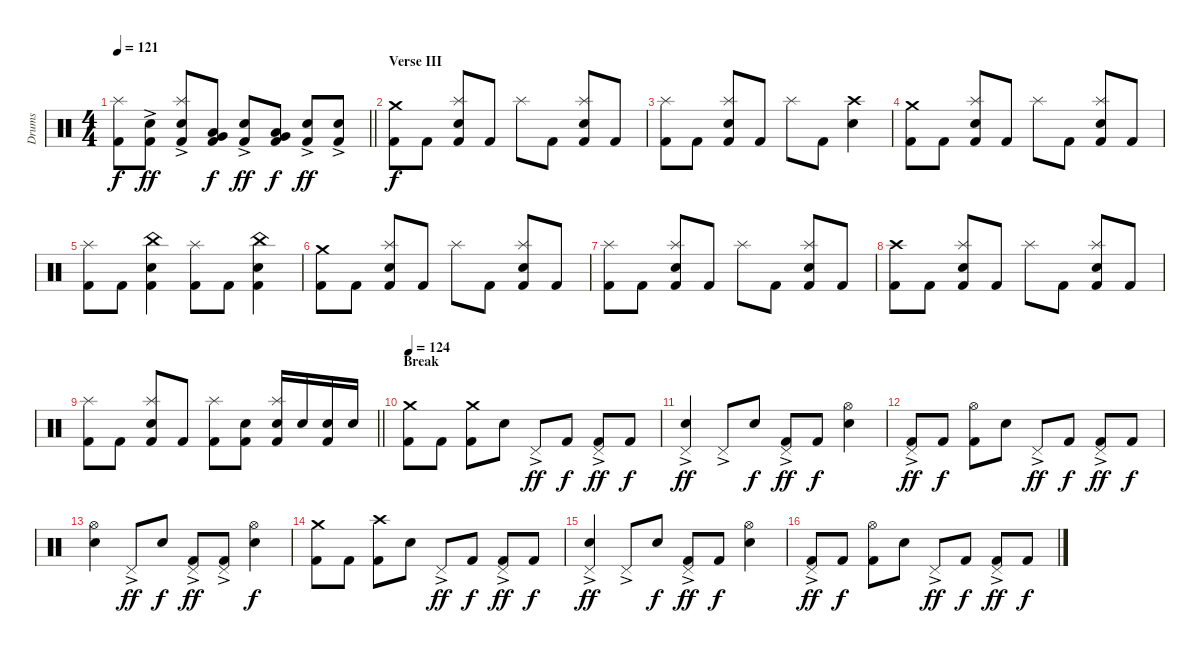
\track ("Drums" "Drums") {instrument percussion}
\staff {score}
\articulation defaults
\ts (4 4)
\tempo 121
\clef neutral
\barLineRight lightlight
\ks c
("Kick (hit) 2" "Splash (hit)").8{dy f} ("Kick (hit) 2" "Snare (hit) 2"{ac}).8{dy ff} ("Kick (hit) 2" "Snare (hit) 2"{ac} "Splash (hit)").8 ("Kick (hit) 2" "Low Tom (hit)" "Very Low Tom (hit)").8{dy f} ("Kick (hit) 2" "Snare (hit) 2"{ac}).8{dy ff} ("Kick (hit) 2" "Very Low Tom (hit)" "Low Floor Tom (hit)").8{dy f} ("Kick (hit) 2" "Snare (hit) 2"{ac}).8{dy ff} ("Kick (hit) 2" "Snare (hit) 2"{ac}).8 |
\section ("" "Verse III")
("Kick (hit) 2" "Crash medium (hit)").8{dy f} "Kick (hit) 2".8 ("Kick (hit) 2" "Snare (hit) 2" "Splash (hit)").8 "Kick (hit) 2".8 "Splash (hit)".8 "Kick (hit) 2".8 ("Kick (hit) 2" "Snare (hit) 2" "Splash (hit)").8 "Kick (hit) 2".8 |
("Kick (hit) 2" "Splash (hit)").8 "Kick (hit) 2".8 ("Kick (hit) 2" "Snare (hit) 2" "Splash (hit)").8 "Kick (hit) 2".8 "Splash (hit)".8 "Kick (hit) 2".8 ("Snare (hit) 2" "Crash high (hit)").4 |
("Kick (hit) 2" "Crash medium (hit)").8 "Kick (hit) 2".8 ("Kick (hit) 2" "Snare (hit) 2" "Splash (hit)").8 "Kick (hit) 2".8 "Splash (hit)".8 "Kick (hit) 2".8 ("Kick (hit) 2" "Snare (hit) 2" "Splash (hit)").8 "Kick (hit) 2".8 |
("Kick (hit) 2" "Splash (hit)").8 "Kick (hit) 2".8 ("Kick (hit) 2" "Snare (hit) 2" "China (hit)").4 ("Kick (hit) 2" "Splash (hit)").8 "Kick (hit) 2".8 ("Kick (hit) 2" "Snare (hit) 2" "China (hit)").4 |
("Kick (hit) 2" "Crash medium (hit)").8 "Kick (hit) 2".8 ("Kick (hit) 2" "Snare (hit) 2" "Splash (hit)").8 "Kick (hit) 2".8 "Splash (hit)".8 "Kick (hit) 2".8 ("Kick (hit) 2" "Snare (hit) 2" "Splash (hit)").8 "Kick (hit) 2".8 |
("Kick (hit) 2" "Splash (hit)").8 "Kick (hit) 2".8 ("Kick (hit) 2" "Snare (hit) 2" "Splash (hit)").8 "Kick (hit) 2".8 "Splash (hit)".8 "Kick (hit) 2".8 ("Kick (hit) 2" "Snare (hit) 2" "Splash (hit)").8 "Kick (hit) 2".8 |
("Kick (hit) 2" "Crash high (hit)").8 "Kick (hit) 2".8 ("Kick (hit) 2" "Snare (hit) 2" "Splash (hit)").8 "Kick (hit) 2".8 "Splash (hit)".8 "Kick (hit) 2".8 ("Kick (hit) 2" "Snare (hit) 2" "Splash (hit)").8 "Kick (hit) 2".8 |
\barLineRight lightlight
("Kick (hit) 2" "Splash (hit)").8 "Kick (hit) 2".8 ("Kick (hit) 2" "Snare (hit) 2" "Splash (hit)").8 "Kick (hit) 2".8 ("Kick (hit) 2" "Splash (hit)").8 ("Kick (hit) 2" "Snare (hit) 2").8 ("Kick (hit) 2" "Snare (hit) 2" "Splash (hit)").16 "Snare (hit) 2".16 ("Kick (hit) 2" "Snare (hit) 2").16 "Snare (hit) 2".16 |
\section ("" "Break")
\tempo 124
("Kick (hit) 2" "Crash medium (hit)").8 "Kick (hit) 2".8 ("Kick (hit) 2" "Crash medium (hit)").8 "Snare (hit) 2".8 "Pedal Hi-Hat (hit)"{ac}.8{dy ff} "Kick (hit) 2".8{dy f} ("Kick (hit) 2" "Pedal Hi-Hat (hit)"{ac}).8{dy ff} "Kick (hit) 2".8{dy f} |
("Snare (hit) 2" "Pedal Hi-Hat (hit)"{ac}).4{dy ff} "Pedal Hi-Hat (hit)"{ac}.8 "Snare (hit) 2".8{dy f} ("Kick (hit) 2" "Pedal Hi-Hat (hit)"{ac}).8{dy ff} "Kick (hit) 2".8{dy f} ("Snare (hit) 2" "Hi-Hat (open)").4 |
("Kick (hit) 2" "Pedal Hi-Hat (hit)"{ac}).8{dy ff} "Kick (hit) 2".8{dy f} ("Kick (hit) 2" "Hi-Hat (open)").8 "Snare (hit) 2".8 "Pedal Hi-Hat (hit)"{ac}.8{dy ff} "Kick (hit) 2".8{dy f} ("Kick (hit) 2" "Pedal Hi-Hat (hit)"{ac}).8{dy ff} "Kick (hit) 2".8{dy f} |
("Snare (hit) 2" "Hi-Hat (open)").4 "Pedal Hi-Hat (hit)"{ac}.8{dy ff} "Snare (hit) 2".8{dy f} ("Kick (hit) 2" "Pedal Hi-Hat (hit)"{ac}).8{dy ff} ("Kick (hit) 2" "Pedal Hi-Hat (hit)"{ac}).8 ("Snare (hit) 2" "Hi-Hat (open)").4{dy f} |
("Kick (hit) 2" "Crash medium (hit)").8 "Kick (hit) 2".8 ("Kick (hit) 2" "Crash high (hit)").8 "Snare (hit) 2".8 "Pedal Hi-Hat (hit)"{ac}.8{dy ff} "Kick (hit) 2".8{dy f} ("Kick (hit) 2" "Pedal Hi-Hat (hit)"{ac}).8{dy ff} "Kick (hit) 2".8{dy f} |
("Snare (hit) 2" "Pedal Hi-Hat (hit)"{ac}).4{dy ff} "Pedal Hi-Hat (hit)"{ac}.8 "Snare (hit) 2".8{dy f} ("Kick (hit) 2" "Pedal Hi-Hat (hit)"{ac}).8{dy ff} "Kick (hit) 2".8{dy f} ("Snare (hit) 2" "Hi-Hat (open)").4 |
("Kick (hit) 2" "Pedal Hi-Hat (hit)"{ac}).8{dy ff} "Kick (hit) 2".8{dy f} ("Kick (hit) 2" "Hi-Hat (open)").8 "Snare (hit) 2".8 "Pedal Hi-Hat (hit)"{ac}.8{dy ff} "Kick (hit) 2".8{dy f} ("Kick (hit) 2" "Pedal Hi-Hat (hit)"{ac}).8{dy ff} "Kick (hit) 2".8{dy f}
